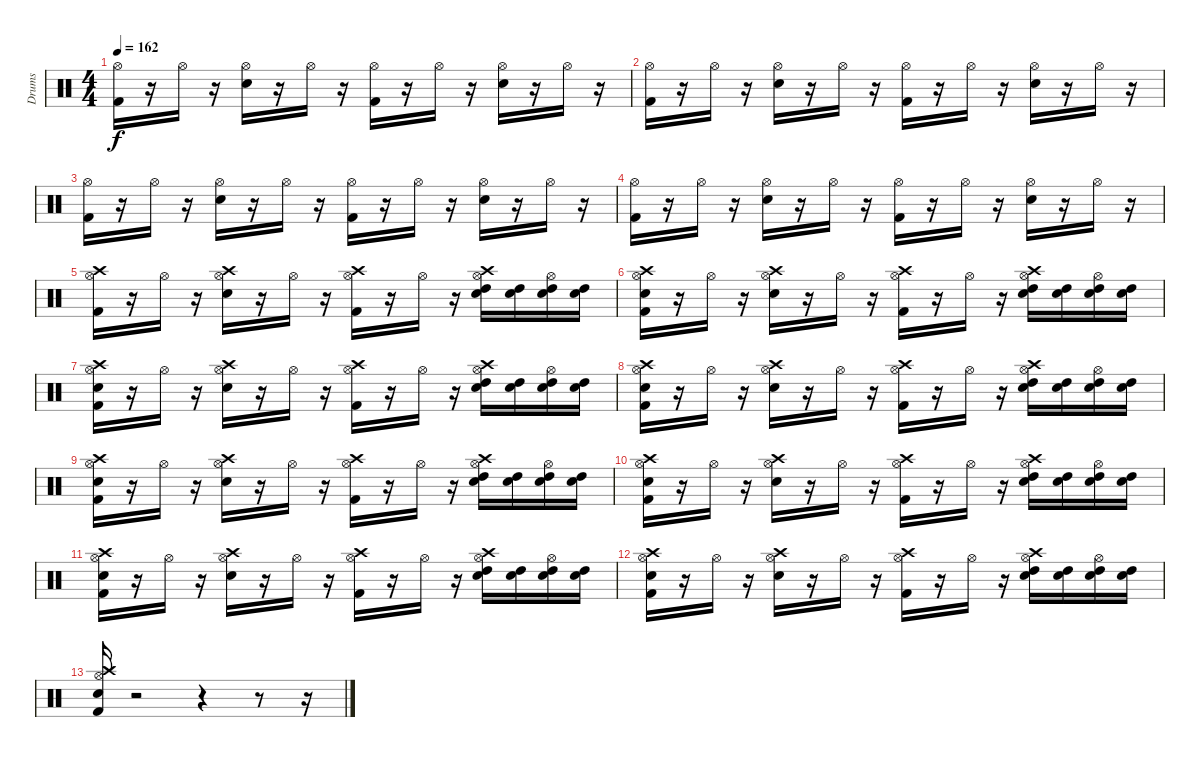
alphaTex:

\track ("Drums" "Drums") {instrument percussion}
\staff {score}
\articulation defaults
\ts (4 4)
\tempo 162
\clef neutral
\ks c
("Kick (hit) 2" "Hi-Hat (open)").16{dy f} r.16 "Hi-Hat (open)".16 r.16 ("Electric Snare (hit)" "Hi-Hat (open)").16 r.16 "Hi-Hat (open)".16 r.16 ("Hi-Hat (open)" "Kick (hit) 2").16 r.16 "Hi-Hat (open)".16 r.16 ("Hi-Hat (open)" "Electric Snare (hit)").16 r.16 "Hi-Hat (open)".16 r.16 |
("Kick (hit) 2" "Hi-Hat (open)").16 r.16 "Hi-Hat (open)".16 r.16 ("Electric Snare (hit)" "Hi-Hat (open)").16 r.16 "Hi-Hat (open)".16 r.16 ("Hi-Hat (open)" "Kick (hit) 2").16 r.16 "Hi-Hat (open)".16 r.16 ("Hi-Hat (open)" "Electric Snare (hit)").16 r.16 "Hi-Hat (open)".16 r.16 |
("Kick (hit) 2" "Hi-Hat (open)").16 r.16 "Hi-Hat (open)".16 r.16 ("Electric Snare (hit)" "Hi-Hat (open)").16 r.16 "Hi-Hat (open)".16 r.16 ("Hi-Hat (open)" "Kick (hit) 2").16 r.16 "Hi-Hat (open)".16 r.16 ("Hi-Hat (open)" "Electric Snare (hit)").16 r.16 "Hi-Hat (open)".16 r.16 |
("Kick (hit) 2" "Hi-Hat (open)").16 r.16 "Hi-Hat (open)".16 r.16 ("Electric Snare (hit)" "Hi-Hat (open)").16 r.16 "Hi-Hat (open)".16 r.16 ("Hi-Hat (open)" "Kick (hit) 2").16 r.16 "Hi-Hat (open)".16 r.16 ("Hi-Hat (open)" "Electric Snare (hit)").16 r.16 "Hi-Hat (open)".16 r.16 |
("Kick (hit) 2" "Hi-Hat (open)" "Crash high (hit)").16 r.16 "Hi-Hat (open)".16 r.16 ("Electric Snare (hit)" "Hi-Hat (open)" "Crash high (hit)").16 r.16 "Hi-Hat (open)".16 r.16 ("Hi-Hat (open)" "Kick (hit) 2" "Crash high (hit)").16 r.16 "Hi-Hat (open)".16 r.16 ("Hi-Hat (open)" "Electric Snare (hit)" "Crash high (hit)" "High Tom (hit)").16 ("Snare (hit)" "High Tom (hit)").16 ("Snare (hit)" "Hi-Hat (open)" "High Tom (hit)").16 ("Snare (hit)" "High Tom (hit)").16 |
("Snare (hit)" "Kick (hit) 2" "Hi-Hat (open)" "Crash high (hit)").16 r.16 "Hi-Hat (open)".16 r.16 ("Electric Snare (hit)" "Hi-Hat (open)" "Crash high (hit)").16 r.16 "Hi-Hat (open)".16 r.16 ("Hi-Hat (open)" "Kick (hit) 2" "Crash high (hit)").16 r.16 "Hi-Hat (open)".16 r.16 ("Hi-Hat (open)" "Electric Snare (hit)" "Crash high (hit)" "High Tom (hit)").16 ("Snare (hit)" "High Tom (hit)").16 ("Snare (hit)" "Hi-Hat (open)" "High Tom (hit)").16 ("Snare (hit)" "High Tom (hit)").16 |
("Snare (hit)" "Kick (hit) 2" "Hi-Hat (open)" "Crash high (hit)").16 r.16 "Hi-Hat (open)".16 r.16 ("Electric Snare (hit)" "Hi-Hat (open)" "Crash high (hit)").16 r.16 "Hi-Hat (open)".16 r.16 ("Hi-Hat (open)" "Kick (hit) 2" "Crash high (hit)").16 r.16 "Hi-Hat (open)".16 r.16 ("Hi-Hat (open)" "Electric Snare (hit)" "Crash high (hit)" "High Tom (hit)").16 ("Snare (hit)" "High Tom (hit)").16 ("Snare (hit)" "Hi-Hat (open)" "High Tom (hit)").16 ("Snare (hit)" "High Tom (hit)").16 |
("Snare (hit)" "Kick (hit) 2" "Hi-Hat (open)" "Crash high (hit)").16 r.16 "Hi-Hat (open)".16 r.16 ("Electric Snare (hit)" "Hi-Hat (open)" "Crash high (hit)").16 r.16 "Hi-Hat (open)".16 r.16 ("Hi-Hat (open)" "Kick (hit) 2" "Crash high (hit)").16 r.16 "Hi-Hat (open)".16 r.16 ("Hi-Hat (open)" "Electric Snare (hit)" "Crash high (hit)" "High Tom (hit)").16 ("Snare (hit)" "High Tom (hit)").16 ("Snare (hit)" "Hi-Hat (open)" "High Tom (hit)").16 ("Snare (hit)" "High Tom (hit)").16 |
("Snare (hit)" "Kick (hit) 2" "Hi-Hat (open)" "Crash high (hit)").16 r.16 "Hi-Hat (open)".16 r.16 ("Electric Snare (hit)" "Hi-Hat (open)" "Crash high (hit)").16 r.16 "Hi-Hat (open)".16 r.16 ("Hi-Hat (open)" "Kick (hit) 2" "Crash high (hit)").16 r.16 "Hi-Hat (open)".16 r.16 ("Hi-Hat (open)" "Electric Snare (hit)" "Crash high (hit)" "High Tom (hit)").16 ("Snare (hit)" "High Tom (hit)").16 ("Snare (hit)" "Hi-Hat (open)" "High Tom (hit)").16 ("Snare (hit)" "High Tom (hit)").16 |
("Snare (hit)" "Kick (hit) 2" "Hi-Hat (open)" "Crash high (hit)").16 r.16 "Hi-Hat (open)".16 r.16 ("Electric Snare (hit)" "Hi-Hat (open)" "Crash high (hit)").16 r.16 "Hi-Hat (open)".16 r.16 ("Hi-Hat (open)" "Kick (hit) 2" "Crash high (hit)").16 r.16 "Hi-Hat (open)".16 r.16 ("Hi-Hat (open)" "Electric Snare (hit)" "Crash high (hit)" "High Tom (hit)").16 ("Snare (hit)" "High Tom (hit)").16 ("Snare (hit)" "Hi-Hat (open)" "High Tom (hit)").16 ("Snare (hit)" "High Tom (hit)").16 |
("Snare (hit)" "Kick (hit) 2" "Hi-Hat (open)" "Crash high (hit)").16 r.16 "Hi-Hat (open)".16 r.16 ("Electric Snare (hit)" "Hi-Hat (open)" "Crash high (hit)").16 r.16 "Hi-Hat (open)".16 r.16 ("Hi-Hat (open)" "Kick (hit) 2" "Crash high (hit)").16 r.16 "Hi-Hat (open)".16 r.16 ("Hi-Hat (open)" "Electric Snare (hit)" "Crash high (hit)" "High Tom (hit)").16 ("Snare (hit)" "High Tom (hit)").16 ("Snare (hit)" "Hi-Hat (open)" "High Tom (hit)").16 ("Snare (hit)" "High Tom (hit)").16 |
("Snare (hit)" "Kick (hit) 2" "Hi-Hat (open)" "Crash high (hit)").16 r.16 "Hi-Hat (open)".16 r.16 ("Electric Snare (hit)" "Hi-Hat (open)" "Crash high (hit)").16 r.16 "Hi-Hat (open)".16 r.16 ("Hi-Hat (open)" "Kick (hit) 2" "Crash high (hit)").16 r.16 "Hi-Hat (open)".16 r.16 ("Hi-Hat (open)" "Electric Snare (hit)" "Crash high (hit)" "High Tom (hit)").16 ("Snare (hit)" "High Tom (hit)").16 ("Snare (hit)" "Hi-Hat (open)" "High Tom (hit)").16 ("Snare (hit)" "High Tom (hit)").16 |
("Snare (hit)" "Kick (hit) 2" "Hi-Hat (open)" "Crash high (hit)").16 r.2 r.4 r.8 r.16
